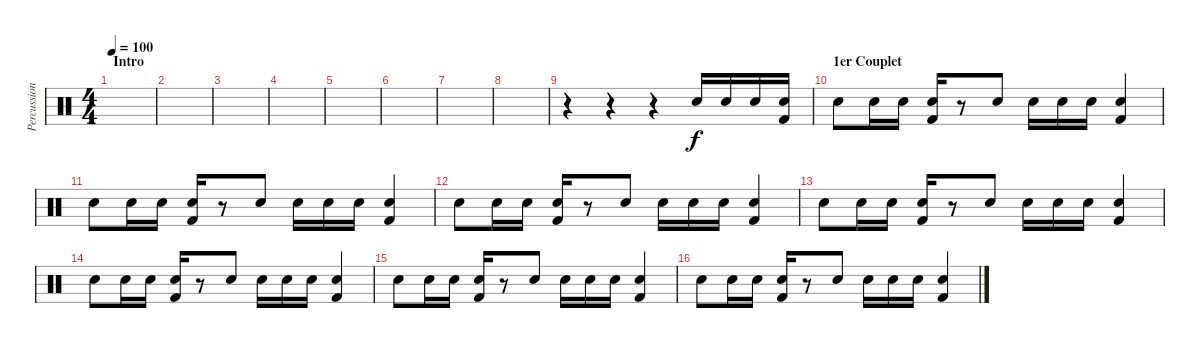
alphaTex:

\track ("Percussions" "Percussion") {instrument percussion}
\staff {score}
\articulation defaults
\ts (4 4)
\section ("" "Intro")
\tempo 100
\clef neutral
\ks c
|
|
|
|
|
|
|
|
r.4 r.4 r.4 "Electric Snare (hit)".16 "Electric Snare (hit)".16 "Electric Snare (hit)".16 ("Snare (hit) 2" "Kick (hit) 2").16 |
\section ("" "1er Couplet")
"Electric Snare (hit)".8 "Electric Snare (hit)".16 "Electric Snare (hit)".16 ("Snare (hit) 2" "Kick (hit) 2").16 r.8 "Electric Snare (hit)".8 "Electric Snare (hit)".16 "Electric Snare (hit)".16 "Electric Snare (hit)".16 ("Snare (hit) 2" "Kick (hit) 2").4 |
"Electric Snare (hit)".8 "Electric Snare (hit)".16 "Electric Snare (hit)".16 ("Snare (hit) 2" "Kick (hit) 2").16 r.8 "Electric Snare (hit)".8 "Electric Snare (hit)".16 "Electric Snare (hit)".16 "Electric Snare (hit)".16 ("Snare (hit) 2" "Kick (hit) 2").4 |
"Electric Snare (hit)".8 "Electric Snare (hit)".16 "Electric Snare (hit)".16 ("Snare (hit) 2" "Kick (hit) 2").16 r.8 "Electric Snare (hit)".8 "Electric Snare (hit)".16 "Electric Snare (hit)".16 "Electric Snare (hit)".16 ("Snare (hit) 2" "Kick (hit) 2").4 |
"Electric Snare (hit)".8 "Electric Snare (hit)".16 "Electric Snare (hit)".16 ("Snare (hit) 2" "Kick (hit) 2").16 r.8 "Electric Snare (hit)".8 "Electric Snare (hit)".16 "Electric Snare (hit)".16 "Electric Snare (hit)".16 ("Snare (hit) 2" "Kick (hit) 2").4 |
"Electric Snare (hit)".8 "Electric Snare (hit)".16 "Electric Snare (hit)".16 ("Snare (hit) 2" "Kick (hit) 2").16 r.8 "Electric Snare (hit)".8 "Electric Snare (hit)".16 "Electric Snare (hit)".16 "Electric Snare (hit)".16 ("Snare (hit) 2" "Kick (hit) 2").4 |
"Electric Snare (hit)".8 "Electric Snare (hit)".16 "Electric Snare (hit)".16 ("Snare (hit) 2" "Kick (hit) 2").16 r.8 "Electric Snare (hit)".8 "Electric Snare (hit)".16 "Electric Snare (hit)".16 "Electric Snare (hit)".16 ("Snare (hit) 2" "Kick (hit) 2").4 |
"Electric Snare (hit)".8 "Electric Snare (hit)".16 "Electric Snare (hit)".16 ("Snare (hit) 2" "Kick (hit) 2").16 r.8 "Electric Snare (hit)".8 "Electric Snare (hit)".16 "Electric Snare (hit)".16 "Electric Snare (hit)".16 ("Snare (hit) 2" "Kick (hit) 2").4
